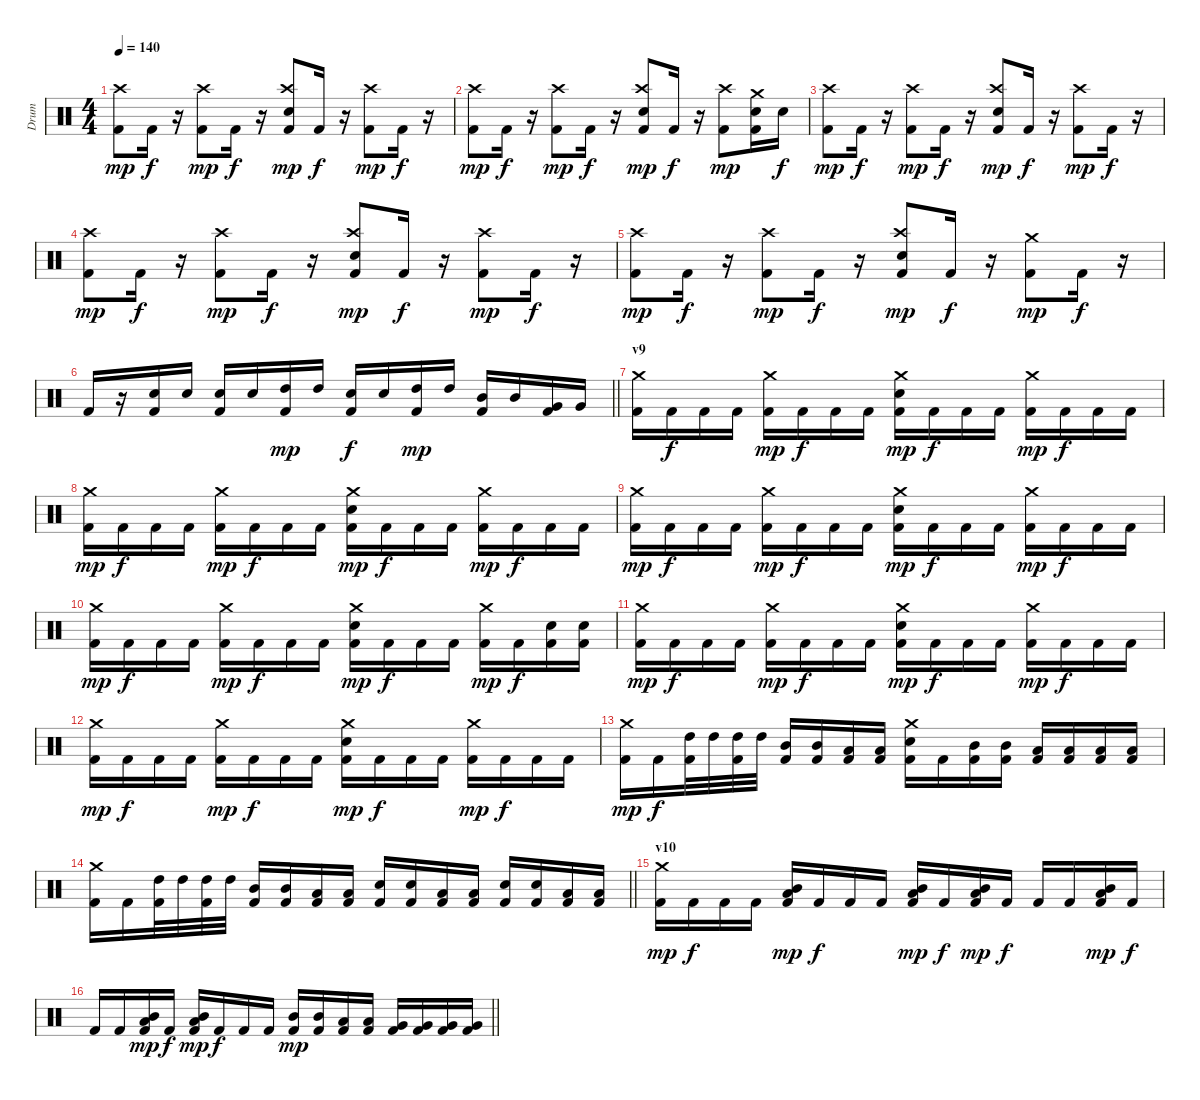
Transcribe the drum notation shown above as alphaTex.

\track ("Drum" "Drum") {instrument percussion}
\staff {score}
\articulation defaults
\ts (4 4)
\tempo 140
\clef neutral
\ks c
("Kick (hit) 2" "Crash high (hit)").8{dy mp} "Kick (hit) 2".16{dy f} r.16 ("Crash high (hit)" "Kick (hit) 2").8{dy mp} "Kick (hit) 2".16{dy f} r.16 ("Kick (hit) 2" "Electric Snare (hit)" "Crash high (hit)").8{dy mp} "Kick (hit) 2".16{dy f} r.16 ("Crash high (hit)" "Kick (hit) 2").8{dy mp} "Kick (hit) 2".16{dy f} r.16 |
("Kick (hit) 2" "Crash high (hit)").8{dy mp} "Kick (hit) 2".16{dy f} r.16 ("Crash high (hit)" "Kick (hit) 2").8{dy mp} "Kick (hit) 2".16{dy f} r.16 ("Kick (hit) 2" "Electric Snare (hit)" "Crash high (hit)").8{dy mp} "Kick (hit) 2".16{dy f} r.16 ("Crash high (hit)" "Kick (hit) 2").8{dy mp} ("Kick (hit) 2" "Electric Snare (hit)" "Crash medium (hit)").16 "Electric Snare (hit)".16{dy f} |
("Kick (hit) 2" "Crash high (hit)").8{dy mp} "Kick (hit) 2".16{dy f} r.16 ("Crash high (hit)" "Kick (hit) 2").8{dy mp} "Kick (hit) 2".16{dy f} r.16 ("Crash high (hit)" "Electric Snare (hit)" "Kick (hit) 2").8{dy mp} "Kick (hit) 2".16{dy f} r.16 ("Kick (hit) 2" "Crash high (hit)").8{dy mp} "Kick (hit) 2".16{dy f} r.16 |
("Crash high (hit)" "Kick (hit) 2").8{dy mp} "Kick (hit) 2".16{dy f} r.16 ("Crash high (hit)" "Kick (hit) 2").8{dy mp} "Kick (hit) 2".16{dy f} r.16 ("Crash high (hit)" "Electric Snare (hit)" "Kick (hit) 2").8{dy mp} "Kick (hit) 2".16{dy f} r.16 ("Crash high (hit)" "Kick (hit) 2").8{dy mp} "Kick (hit) 2".16{dy f} r.16 |
("Crash high (hit)" "Kick (hit) 2").8{dy mp} "Kick (hit) 2".16{dy f} r.16 ("Crash high (hit)" "Kick (hit) 2").8{dy mp} "Kick (hit) 2".16{dy f} r.16 ("Crash high (hit)" "Electric Snare (hit)" "Kick (hit) 2").8{dy mp} "Kick (hit) 2".16{dy f} r.16 ("Kick (hit) 2" "Crash medium (hit)").8{dy mp} "Kick (hit) 2".16{dy f} r.16 |
\barLineRight lightlight "Kick (hit) 2".16
r.16 ("Kick (hit) 2" "Electric Snare (hit)").16 "Electric Snare (hit)".16 ("Electric Snare (hit)" "Kick (hit) 2").16 "Electric Snare (hit)".16 ("High Tom (hit)" "Kick (hit) 2").16{dy mp} "High Tom (hit)".16 ("Kick (hit) 2" "Electric Snare (hit)").16{dy f} "Electric Snare (hit)".16 ("Kick (hit) 2" "High Tom (hit)").16{dy mp} "High Tom (hit)".16 ("Kick (hit) 2" "Mid Tom (hit)").16 "Mid Tom (hit)".16 ("Kick (hit) 2" "Very Low Tom (hit)").16 "Very Low Tom (hit)".16 |
\section ("" "v9")
("Kick (hit) 2" "Crash medium (hit)").16 "Kick (hit) 2".16{dy f} "Kick (hit) 2".16 "Kick (hit) 2".16 ("Kick (hit) 2" "Crash medium (hit)").16{dy mp} "Kick (hit) 2".16{dy f} "Kick (hit) 2".16 "Kick (hit) 2".16 ("Kick (hit) 2" "Electric Snare (hit)" "Crash medium (hit)").16{dy mp} "Kick (hit) 2".16{dy f} "Kick (hit) 2".16 "Kick (hit) 2".16 ("Kick (hit) 2" "Crash medium (hit)").16{dy mp} "Kick (hit) 2".16{dy f} "Kick (hit) 2".16 "Kick (hit) 2".16 |
("Kick (hit) 2" "Crash medium (hit)").16{dy mp} "Kick (hit) 2".16{dy f} "Kick (hit) 2".16 "Kick (hit) 2".16 ("Kick (hit) 2" "Crash medium (hit)").16{dy mp} "Kick (hit) 2".16{dy f} "Kick (hit) 2".16 "Kick (hit) 2".16 ("Kick (hit) 2" "Electric Snare (hit)" "Crash medium (hit)").16{dy mp} "Kick (hit) 2".16{dy f} "Kick (hit) 2".16 "Kick (hit) 2".16 ("Kick (hit) 2" "Crash medium (hit)").16{dy mp} "Kick (hit) 2".16{dy f} "Kick (hit) 2".16 "Kick (hit) 2".16 |
("Kick (hit) 2" "Crash medium (hit)").16{dy mp} "Kick (hit) 2".16{dy f} "Kick (hit) 2".16 "Kick (hit) 2".16 ("Kick (hit) 2" "Crash medium (hit)").16{dy mp} "Kick (hit) 2".16{dy f} "Kick (hit) 2".16 "Kick (hit) 2".16 ("Kick (hit) 2" "Electric Snare (hit)" "Crash medium (hit)").16{dy mp} "Kick (hit) 2".16{dy f} "Kick (hit) 2".16 "Kick (hit) 2".16 ("Kick (hit) 2" "Crash medium (hit)").16{dy mp} "Kick (hit) 2".16{dy f} "Kick (hit) 2".16 "Kick (hit) 2".16 |
("Kick (hit) 2" "Crash medium (hit)").16{dy mp} "Kick (hit) 2".16{dy f} "Kick (hit) 2".16 "Kick (hit) 2".16 ("Kick (hit) 2" "Crash medium (hit)").16{dy mp} "Kick (hit) 2".16{dy f} "Kick (hit) 2".16 "Kick (hit) 2".16 ("Kick (hit) 2" "Electric Snare (hit)" "Crash medium (hit)").16{dy mp} "Kick (hit) 2".16{dy f} "Kick (hit) 2".16 "Kick (hit) 2".16 ("Kick (hit) 2" "Crash medium (hit)").16{dy mp} "Kick (hit) 2".16{dy f} ("Kick (hit) 2" "Electric Snare (hit)").16 ("Kick (hit) 2" "Electric Snare (hit)").16 |
("Kick (hit) 2" "Crash medium (hit)").16{dy mp} "Kick (hit) 2".16{dy f} "Kick (hit) 2".16 "Kick (hit) 2".16 ("Kick (hit) 2" "Crash medium (hit)").16{dy mp} "Kick (hit) 2".16{dy f} "Kick (hit) 2".16 "Kick (hit) 2".16 ("Kick (hit) 2" "Electric Snare (hit)" "Crash medium (hit)").16{dy mp} "Kick (hit) 2".16{dy f} "Kick (hit) 2".16 "Kick (hit) 2".16 ("Kick (hit) 2" "Crash medium (hit)").16{dy mp} "Kick (hit) 2".16{dy f} "Kick (hit) 2".16 "Kick (hit) 2".16 |
("Crash medium (hit)" "Kick (hit) 2").16{dy mp} "Kick (hit) 2".16{dy f} "Kick (hit) 2".16 "Kick (hit) 2".16 ("Crash medium (hit)" "Kick (hit) 2").16{dy mp} "Kick (hit) 2".16{dy f} "Kick (hit) 2".16 "Kick (hit) 2".16 ("Crash medium (hit)" "Kick (hit) 2" "Electric Snare (hit)").16{dy mp} "Kick (hit) 2".16{dy f} "Kick (hit) 2".16 "Kick (hit) 2".16 ("Crash medium (hit)" "Kick (hit) 2").16{dy mp} "Kick (hit) 2".16{dy f} "Kick (hit) 2".16 "Kick (hit) 2".16 |
("Crash medium (hit)" "Kick (hit) 2").16{dy mp} "Kick (hit) 2".16{dy f} ("Kick (hit) 2" "High Tom (hit)").32 "High Tom (hit)".32 ("Kick (hit) 2" "High Tom (hit)").32 "High Tom (hit)".32 ("Kick (hit) 2" "Mid Tom (hit)").16 ("Mid Tom (hit)" "Kick (hit) 2").16 ("Kick (hit) 2" "Low Tom (hit)").16 ("Low Tom (hit)" "Kick (hit) 2").16 ("Crash medium (hit)" "Kick (hit) 2" "Electric Snare (hit)").16 "Kick (hit) 2".16 ("Mid Tom (hit)" "Kick (hit) 2").16 ("Mid Tom (hit)" "Kick (hit) 2").16 ("Low Tom (hit)" "Kick (hit) 2").16 ("Low Tom (hit)" "Kick (hit) 2").16 ("Low Tom (hit)" "Kick (hit) 2").16 ("Low Tom (hit)" "Kick (hit) 2").16 |
\barLineRight lightlight
("Crash medium (hit)" "Kick (hit) 2").16 "Kick (hit) 2".16 ("High Tom (hit)" "Kick (hit) 2").32 "High Tom (hit)".32 ("High Tom (hit)" "Kick (hit) 2").32 "High Tom (hit)".32 ("Mid Tom (hit)" "Kick (hit) 2").16 ("Mid Tom (hit)" "Kick (hit) 2").16 ("Low Tom (hit)" "Kick (hit) 2").16 ("Low Tom (hit)" "Kick (hit) 2").16 ("Kick (hit) 2" "Electric Snare (hit)").16 ("Electric Snare (hit)" "Kick (hit) 2").16 ("Low Tom (hit)" "Kick (hit) 2").16 ("Low Tom (hit)" "Kick (hit) 2").16 ("Kick (hit) 2" "Electric Snare (hit)").16 ("Electric Snare (hit)" "Kick (hit) 2").16 ("Low Tom (hit)" "Kick (hit) 2").16 ("Low Tom (hit)" "Kick (hit) 2").16 |
\section ("" "v10")
("Crash medium (hit)" "Kick (hit) 2").16{dy mp} "Kick (hit) 2".16{dy f} "Kick (hit) 2".16 "Kick (hit) 2".16 ("Low Tom (hit)" "Kick (hit) 2" "Mid Tom (hit)").16{dy mp} "Kick (hit) 2".16{dy f} "Kick (hit) 2".16 "Kick (hit) 2".16 ("Low Tom (hit)" "Mid Tom (hit)" "Kick (hit) 2").16{dy mp} "Kick (hit) 2".16{dy f} ("Low Tom (hit)" "Kick (hit) 2" "Mid Tom (hit)").16{dy mp} "Kick (hit) 2".16{dy f} "Kick (hit) 2".16 "Kick (hit) 2".16 ("Low Tom (hit)" "Mid Tom (hit)" "Kick (hit) 2").16{dy mp} "Kick (hit) 2".16{dy f} |
\barLineRight lightlight "Kick (hit) 2".16 "Kick (hit) 2".16
("Low Tom (hit)" "Kick (hit) 2" "Mid Tom (hit)").16{dy mp} "Kick (hit) 2".16{dy f} ("Low Tom (hit)" "Mid Tom (hit)" "Kick (hit) 2").16{dy mp} "Kick (hit) 2".16{dy f} "Kick (hit) 2".16 "Kick (hit) 2".16 ("Kick (hit) 2" "Mid Tom (hit)").16{dy mp} ("Kick (hit) 2" "Mid Tom (hit)").16 ("Kick (hit) 2" "Low Tom (hit)").16 ("Kick (hit) 2" "Low Tom (hit)").16 ("Kick (hit) 2" "Very Low Tom (hit)").16 ("Kick (hit) 2" "Very Low Tom (hit)").16 ("Kick (hit) 2" "Very Low Tom (hit)").16 ("Kick (hit) 2" "Very Low Tom (hit)").16
